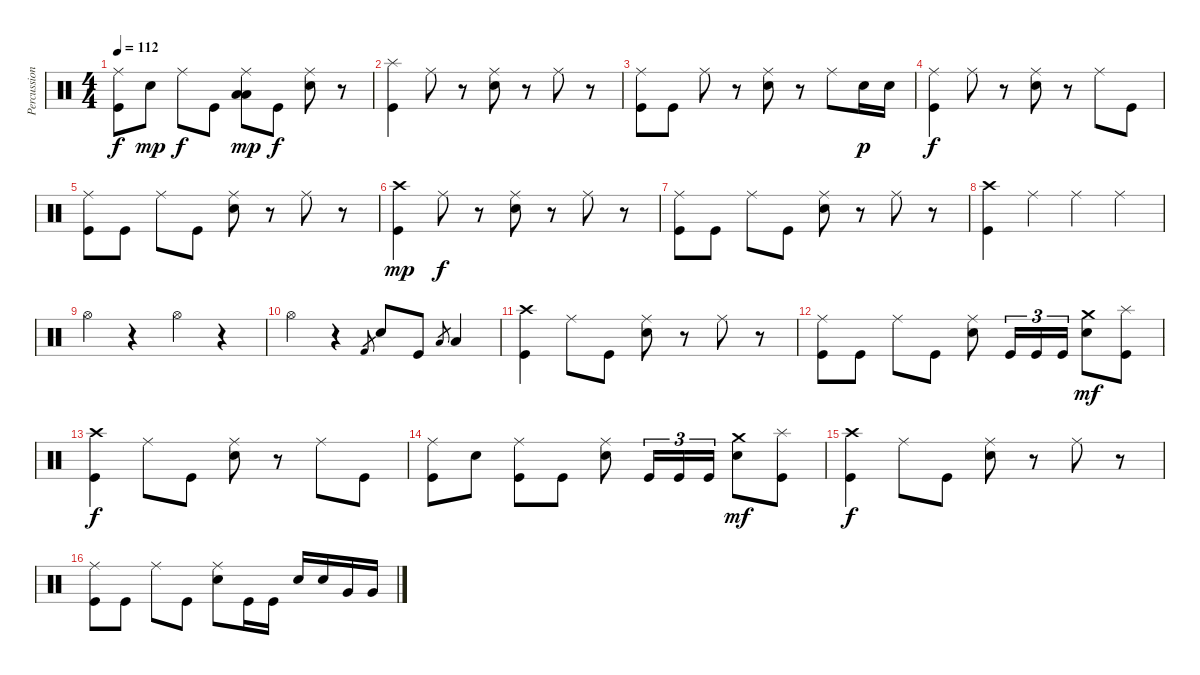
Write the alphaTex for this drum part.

\track ("Percussion" "Percussion") {instrument percussion}
\staff {score}
\articulation defaults
\ts (4 4)
\tempo 112
\clef neutral
\ks c
("Ride (middle)" "Kick (hit)").8{dy f} "Snare (hit) 2".8{dy mp} "Ride (middle)".8{dy f} "Kick (hit)".8 ("Ride (middle)" "Low Tom (hit)" "Low Floor Tom (hit)").8{dy mp} "Kick (hit)".8{dy f} ("Ride (middle)" "Snare (hit) 2").8 r.8 |
("Splash (hit)" "Kick (hit)").4 "Ride (middle)".8 r.8 ("Ride (middle)" "Snare (hit) 2").8 r.8 "Ride (middle)".8 r.8 |
("Ride (middle)" "Kick (hit)").8 "Kick (hit)".8 "Ride (middle)".8 r.8 ("Ride (middle)" "Snare (hit) 2").8 r.8 "Ride (middle)".8 "Snare (hit) 2".16{dy p} "Snare (hit) 2".16 |
("Ride (middle)" "Kick (hit)").4{dy f} "Ride (middle)".8 r.8 ("Ride (middle)" "Snare (hit) 2").8 r.8 "Ride (middle)".8 "Kick (hit)".8 |
("Ride (middle)" "Kick (hit)").8 "Kick (hit)".8 "Ride (middle)".8 "Kick (hit)".8 ("Ride (middle)" "Snare (hit) 2").8 r.8 "Ride (middle)".8 r.8 |
("Crash high (hit)" "Kick (hit)").4{dy mp} "Ride (middle)".8{dy f} r.8 ("Ride (middle)" "Snare (hit) 2").8 r.8 "Ride (middle)".8 r.8 |
("Ride (middle)" "Kick (hit)").8 "Kick (hit)".8 "Ride (middle)".8 "Kick (hit)".8 ("Ride (middle)" "Snare (hit) 2").8 r.8 "Ride (middle)".8 r.8 |
("Crash high (hit)" "Kick (hit)").4 "Ride (middle)".4 "Ride (middle)".4 "Ride (middle)".4 |
"Hi-Hat (open)".4 r.4 "Hi-Hat (open)".4 r.4 |
"Hi-Hat (open)".4 r.4 "Kick (hit) 2".8{gr} "Snare (hit) 2".8 "Kick (hit)".8 "Low Floor Tom (hit)".8{gr} "Low Tom (hit)".4 |
("Crash high (hit)" "Kick (hit)").4 "Ride (middle)".8 "Kick (hit)".8 ("Ride (middle)" "Snare (hit) 2").8 r.8 "Ride (middle)".8 r.8 |
("Ride (middle)" "Kick (hit)").8 "Kick (hit)".8 "Ride (middle)".8 "Kick (hit)".8 ("Ride (middle)" "Snare (hit) 2").8 "Kick (hit)".16{tu (3 2)} "Kick (hit)".16{tu (3 2)} "Kick (hit)".16{tu (3 2)} ("Crash medium (hit)" "Snare (hit) 2").8{dy mf} ("Splash (hit)" "Kick (hit)").8 |
("Crash high (hit)" "Kick (hit)").4{dy f} "Ride (middle)".8 "Kick (hit)".8 ("Ride (middle)" "Snare (hit) 2").8 r.8 "Ride (middle)".8 "Kick (hit)".8 |
("Ride (middle)" "Kick (hit)").8 "Snare (hit) 2".8 ("Ride (middle)" "Kick (hit)").8 "Kick (hit)".8 ("Ride (middle)" "Snare (hit) 2").8 "Kick (hit)".16{tu (3 2)} "Kick (hit)".16{tu (3 2)} "Kick (hit)".16{tu (3 2)} ("Crash medium (hit)" "Snare (hit) 2").8{dy mf} ("Splash (hit)" "Kick (hit)").8 |
("Crash high (hit)" "Kick (hit)").4{dy f} "Ride (middle)".8 "Kick (hit)".8 ("Ride (middle)" "Snare (hit) 2").8 r.8 "Ride (middle)".8 r.8 |
("Ride (middle)" "Kick (hit)").8 "Kick (hit)".8 "Ride (middle)".8 "Kick (hit)".8 ("Ride (middle)" "Snare (hit) 2").8 "Kick (hit)".16 "Kick (hit)".16 "Snare (hit) 2".16 "Snare (hit) 2".16 "Very Low Tom (hit)".16 "Very Low Tom (hit)".16
